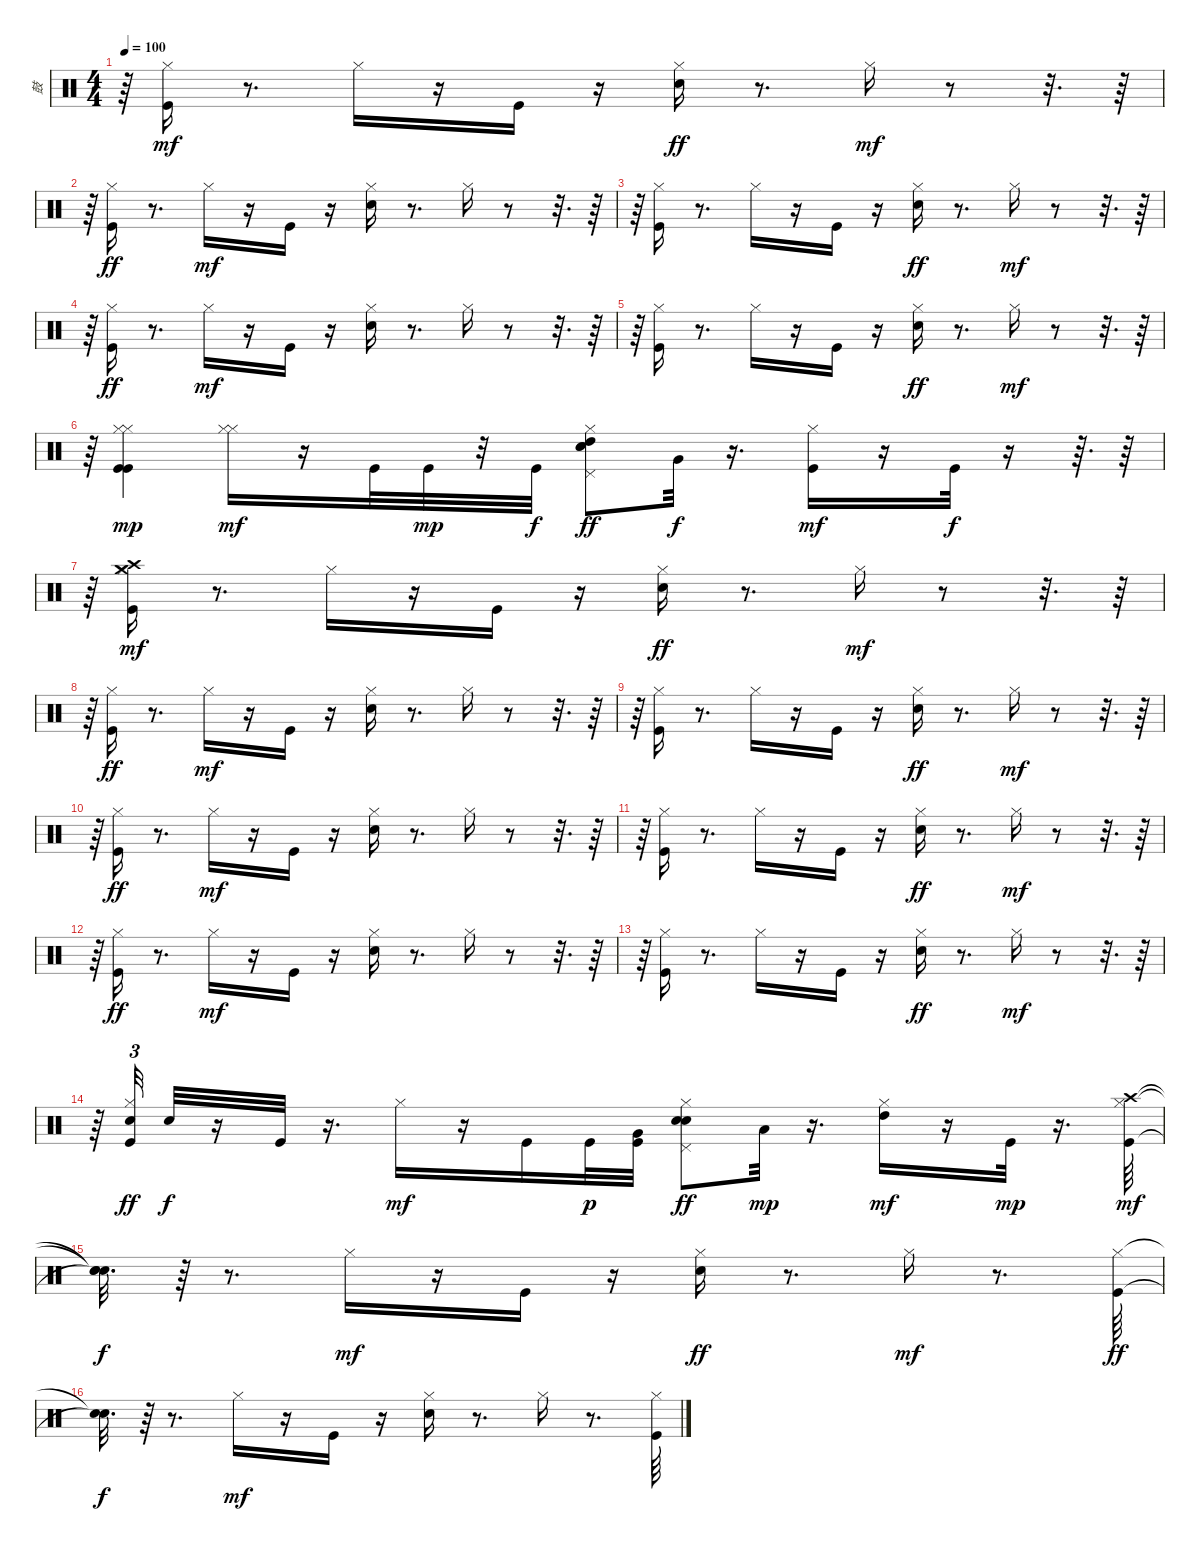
\track ("鼓" "鼓") {instrument percussion}
\staff {score}
\articulation defaults
\ts (4 4)
\tempo 100
\clef neutral
\ks c
r.64{dy mf} ("Kick (hit)" "Hi-Hat (closed)").16 r.8{d} "Hi-Hat (closed)".16 r.16 "Kick (hit)".16 r.16 ("Hi-Hat (closed)" "Electric Snare (hit)").16{dy ff} r.8{d} "Hi-Hat (closed)".16{dy mf} r.8 r.32{d} r.64 |
r.64 ("Kick (hit)" "Hi-Hat (closed)").16{dy ff} r.8{d} "Hi-Hat (closed)".16{dy mf} r.16 "Kick (hit)".16 r.16 ("Electric Snare (hit)" "Hi-Hat (closed)").16 r.8{d} "Hi-Hat (closed)".16 r.8 r.32{d} r.64 |
r.64 ("Kick (hit)" "Hi-Hat (closed)").16 r.8{d} "Hi-Hat (closed)".16 r.16 "Kick (hit)".16 r.16 ("Hi-Hat (closed)" "Electric Snare (hit)").16{dy ff} r.8{d} "Hi-Hat (closed)".16{dy mf} r.8 r.32{d} r.64 |
r.64 ("Kick (hit)" "Hi-Hat (closed)").16{dy ff} r.8{d} "Hi-Hat (closed)".16{dy mf} r.16 "Kick (hit)".16 r.16 ("Electric Snare (hit)" "Hi-Hat (closed)").16 r.8{d} "Hi-Hat (closed)".16 r.8 r.32{d} r.64 |
r.64 ("Kick (hit)" "Hi-Hat (closed)").16 r.8{d} "Hi-Hat (closed)".16 r.16 "Kick (hit)".16 r.16 ("Hi-Hat (closed)" "Electric Snare (hit)").16{dy ff} r.8{d} "Hi-Hat (closed)".16{dy mf} r.8 r.32{d} r.64 |
r.64 ("Kick (hit)" "Kick (hit)" "Hi-Hat (closed)" "Hi-Hat (closed)").4{dy mp} ("Hi-Hat (closed)" "Hi-Hat (closed)").16{dy mf} r.16 "Kick (hit)".32 "Kick (hit)".32{dy mp} r.32 "Kick (hit)".32{dy f} ("High Tom (hit)" "Pedal Hi-Hat (hit)" "Electric Snare (hit)" "Hi-Hat (closed)" "Electric Snare (hit)").8{dy ff} "Very Low Tom (hit)".32{dy f} r.16{d} ("Kick (hit)" "Hi-Hat (closed)").16{dy mf} r.16 "Kick (hit)".32{dy f} r.16 r.64{d} r.64 |
r.64 ("Crash medium (hit)" "Crash high (hit)" "Kick (hit)" "Hi-Hat (closed)").16{dy mf} r.8{d} "Hi-Hat (closed)".16 r.16 "Kick (hit)".16 r.16 ("Hi-Hat (closed)" "Electric Snare (hit)").16{dy ff} r.8{d} "Hi-Hat (closed)".16{dy mf} r.8 r.32{d} r.64 |
r.64 ("Kick (hit)" "Hi-Hat (closed)").16{dy ff} r.8{d} "Hi-Hat (closed)".16{dy mf} r.16 "Kick (hit)".16 r.16 ("Electric Snare (hit)" "Hi-Hat (closed)").16 r.8{d} "Hi-Hat (closed)".16 r.8 r.32{d} r.64 |
r.64 ("Kick (hit)" "Hi-Hat (closed)").16 r.8{d} "Hi-Hat (closed)".16 r.16 "Kick (hit)".16 r.16 ("Hi-Hat (closed)" "Electric Snare (hit)").16{dy ff} r.8{d} "Hi-Hat (closed)".16{dy mf} r.8 r.32{d} r.64 |
r.64 ("Kick (hit)" "Hi-Hat (closed)").16{dy ff} r.8{d} "Hi-Hat (closed)".16{dy mf} r.16 "Kick (hit)".16 r.16 ("Electric Snare (hit)" "Hi-Hat (closed)").16 r.8{d} "Hi-Hat (closed)".16 r.8 r.32{d} r.64 |
r.64 ("Kick (hit)" "Hi-Hat (closed)").16 r.8{d} "Hi-Hat (closed)".16 r.16 "Kick (hit)".16 r.16 ("Hi-Hat (closed)" "Electric Snare (hit)").16{dy ff} r.8{d} "Hi-Hat (closed)".16{dy mf} r.8 r.32{d} r.64 |
r.64 ("Kick (hit)" "Hi-Hat (closed)").16{dy ff} r.8{d} "Hi-Hat (closed)".16{dy mf} r.16 "Kick (hit)".16 r.16 ("Electric Snare (hit)" "Hi-Hat (closed)").16 r.8{d} "Hi-Hat (closed)".16 r.8 r.32{d} r.64 |
r.64 ("Kick (hit)" "Hi-Hat (closed)").16 r.8{d} "Hi-Hat (closed)".16 r.16 "Kick (hit)".16 r.16 ("Hi-Hat (closed)" "Electric Snare (hit)").16{dy ff} r.8{d} "Hi-Hat (closed)".16{dy mf} r.8 r.32{d} r.64 |
r.64 ("Electric Snare (hit)" "Kick (hit)" "Hi-Hat (closed)").32{tu (3 2) dy ff} "Electric Snare (hit)".32{dy f} r.16 "Kick (hit)".32 r.16{d} "Hi-Hat (closed)".16{dy mf} r.16 "Kick (hit)".16 "Kick (hit)".32{dy p} ("Kick (hit)" "Very Low Tom (hit)").32 ("Pedal Hi-Hat (hit)" "Electric Snare (hit)" "Hi-Hat (closed)" "Electric Snare (hit)").8{dy ff} "Low Tom (hit)".32{dy mp} r.16{d} ("Hi-Hat (closed)" "High Tom (hit)").16{dy mf} r.16 "Kick (hit)".32{dy mp} r.16{d} ("Crash high (hit)" "Kick (hit)" "Hi-Hat (closed)").64{dy mf} |
("Snare (hit)"{t} "Snare (hit)"{t} "Snare (hit)"{t}).32{d dy f} r.64 r.8{d} "Hi-Hat (closed)".16{dy mf} r.16 "Kick (hit)".16 r.16 ("Hi-Hat (closed)" "Electric Snare (hit)").16{dy ff} r.8{d} "Hi-Hat (closed)".16{dy mf} r.8{d} ("Kick (hit)" "Hi-Hat (closed)").64{dy ff} |
("Snare (hit)"{t} "Snare (hit)"{t}).32{d dy f} r.64 r.8{d} "Hi-Hat (closed)".16{dy mf} r.16 "Kick (hit)".16 r.16 ("Electric Snare (hit)" "Hi-Hat (closed)").16 r.8{d} "Hi-Hat (closed)".16 r.8{d} ("Kick (hit)" "Hi-Hat (closed)").64
